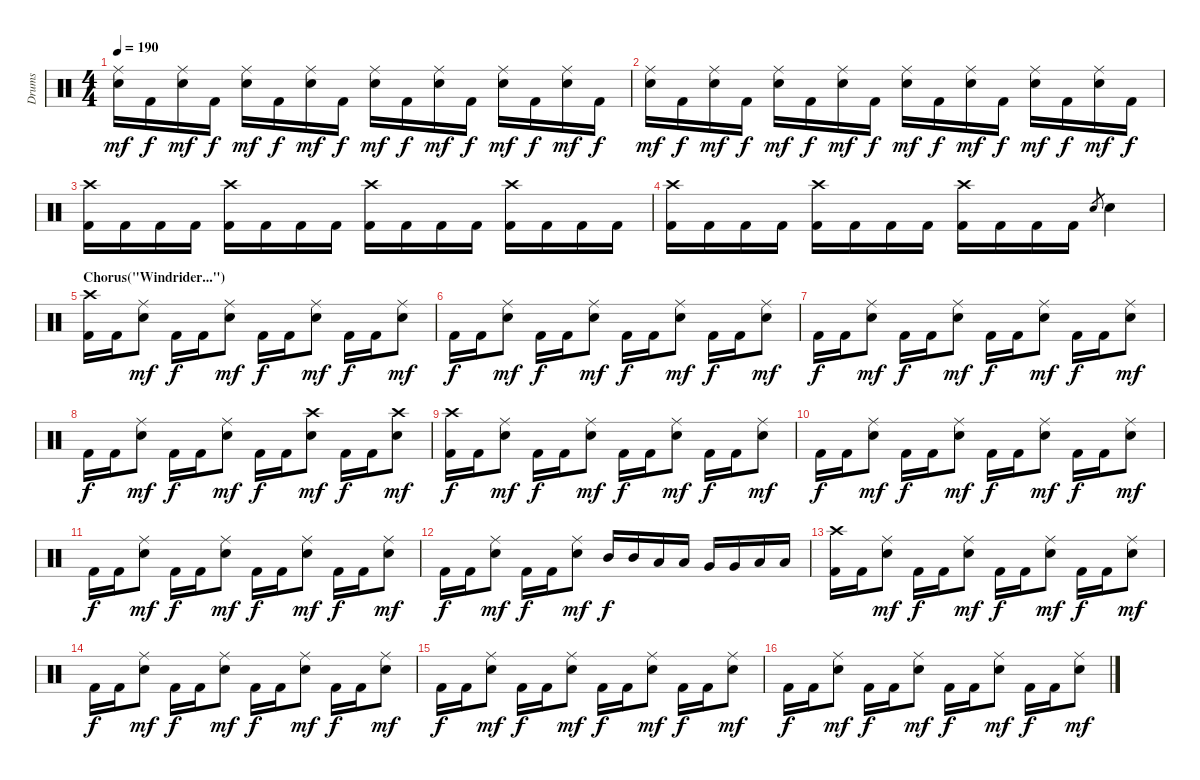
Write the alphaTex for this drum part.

\track ("Drums" "Drums") {instrument percussion}
\staff {score}
\articulation defaults
\ts (4 4)
\tempo 190
\clef neutral
\ks c
("Ride (middle)" "Snare (hit) 2").16{dy mf} "Kick (hit) 2".16{dy f} ("Ride (middle)" "Snare (hit) 2").16{dy mf} "Kick (hit) 2".16{dy f} ("Ride (middle)" "Snare (hit) 2").16{dy mf} "Kick (hit) 2".16{dy f} ("Ride (middle)" "Snare (hit) 2").16{dy mf} "Kick (hit) 2".16{dy f} ("Ride (middle)" "Snare (hit) 2").16{dy mf} "Kick (hit) 2".16{dy f} ("Ride (middle)" "Snare (hit) 2").16{dy mf} "Kick (hit) 2".16{dy f} ("Ride (middle)" "Snare (hit) 2").16{dy mf} "Kick (hit) 2".16{dy f} ("Ride (middle)" "Snare (hit) 2").16{dy mf} "Kick (hit) 2".16{dy f} |
("Ride (middle)" "Snare (hit) 2").16{dy mf} "Kick (hit) 2".16{dy f} ("Ride (middle)" "Snare (hit) 2").16{dy mf} "Kick (hit) 2".16{dy f} ("Ride (middle)" "Snare (hit) 2").16{dy mf} "Kick (hit) 2".16{dy f} ("Ride (middle)" "Snare (hit) 2").16{dy mf} "Kick (hit) 2".16{dy f} ("Ride (middle)" "Snare (hit) 2").16{dy mf} "Kick (hit) 2".16{dy f} ("Ride (middle)" "Snare (hit) 2").16{dy mf} "Kick (hit) 2".16{dy f} ("Ride (middle)" "Snare (hit) 2").16{dy mf} "Kick (hit) 2".16{dy f} ("Ride (middle)" "Snare (hit) 2").16{dy mf} "Kick (hit) 2".16{dy f} |
("Crash high (hit)" "Kick (hit) 2").16 "Kick (hit) 2".16 "Kick (hit) 2".16 "Kick (hit) 2".16 ("Crash high (hit)" "Kick (hit) 2").16 "Kick (hit) 2".16 "Kick (hit) 2".16 "Kick (hit) 2".16 ("Crash high (hit)" "Kick (hit) 2").16 "Kick (hit) 2".16 "Kick (hit) 2".16 "Kick (hit) 2".16 ("Crash high (hit)" "Kick (hit) 2").16 "Kick (hit) 2".16 "Kick (hit) 2".16 "Kick (hit) 2".16 |
("Crash high (hit)" "Kick (hit) 2").16 "Kick (hit) 2".16 "Kick (hit) 2".16 "Kick (hit) 2".16 ("Crash high (hit)" "Kick (hit) 2").16 "Kick (hit) 2".16 "Kick (hit) 2".16 "Kick (hit) 2".16 ("Crash high (hit)" "Kick (hit) 2").16 "Kick (hit) 2".16 "Kick (hit) 2".16 "Kick (hit) 2".16 "Snare (hit) 2".8{gr} "Snare (hit) 2".4 |
\section ("" "Chorus(\"Windrider...\")")
("Crash high (hit)" "Kick (hit) 2").16 "Kick (hit) 2".16 ("Ride (middle)" "Snare (hit) 2").8{dy mf} "Kick (hit) 2".16{dy f} "Kick (hit) 2".16 ("Ride (middle)" "Snare (hit) 2").8{dy mf} "Kick (hit) 2".16{dy f} "Kick (hit) 2".16 ("Ride (middle)" "Snare (hit) 2").8{dy mf} "Kick (hit) 2".16{dy f} "Kick (hit) 2".16 ("Ride (middle)" "Snare (hit) 2").8{dy mf} |
"Kick (hit) 2".16{dy f} "Kick (hit) 2".16 ("Ride (middle)" "Snare (hit) 2").8{dy mf} "Kick (hit) 2".16{dy f} "Kick (hit) 2".16 ("Ride (middle)" "Snare (hit) 2").8{dy mf} "Kick (hit) 2".16{dy f} "Kick (hit) 2".16 ("Ride (middle)" "Snare (hit) 2").8{dy mf} "Kick (hit) 2".16{dy f} "Kick (hit) 2".16 ("Ride (middle)" "Snare (hit) 2").8{dy mf} |
"Kick (hit) 2".16{dy f} "Kick (hit) 2".16 ("Ride (middle)" "Snare (hit) 2").8{dy mf} "Kick (hit) 2".16{dy f} "Kick (hit) 2".16 ("Ride (middle)" "Snare (hit) 2").8{dy mf} "Kick (hit) 2".16{dy f} "Kick (hit) 2".16 ("Ride (middle)" "Snare (hit) 2").8{dy mf} "Kick (hit) 2".16{dy f} "Kick (hit) 2".16 ("Ride (middle)" "Snare (hit) 2").8{dy mf} |
"Kick (hit) 2".16{dy f} "Kick (hit) 2".16 ("Ride (middle)" "Snare (hit) 2").8{dy mf} "Kick (hit) 2".16{dy f} "Kick (hit) 2".16 ("Ride (middle)" "Snare (hit) 2").8{dy mf} "Kick (hit) 2".16{dy f} "Kick (hit) 2".16 ("Crash high (hit)" "Snare (hit) 2").8{dy mf} "Kick (hit) 2".16{dy f} "Kick (hit) 2".16 ("Crash high (hit)" "Snare (hit) 2").8{dy mf} |
("Crash high (hit)" "Kick (hit) 2").16{dy f} "Kick (hit) 2".16 ("Ride (middle)" "Snare (hit) 2").8{dy mf} "Kick (hit) 2".16{dy f} "Kick (hit) 2".16 ("Ride (middle)" "Snare (hit) 2").8{dy mf} "Kick (hit) 2".16{dy f} "Kick (hit) 2".16 ("Ride (middle)" "Snare (hit) 2").8{dy mf} "Kick (hit) 2".16{dy f} "Kick (hit) 2".16 ("Ride (middle)" "Snare (hit) 2").8{dy mf} |
"Kick (hit) 2".16{dy f} "Kick (hit) 2".16 ("Ride (middle)" "Snare (hit) 2").8{dy mf} "Kick (hit) 2".16{dy f} "Kick (hit) 2".16 ("Ride (middle)" "Snare (hit) 2").8{dy mf} "Kick (hit) 2".16{dy f} "Kick (hit) 2".16 ("Ride (middle)" "Snare (hit) 2").8{dy mf} "Kick (hit) 2".16{dy f} "Kick (hit) 2".16 ("Ride (middle)" "Snare (hit) 2").8{dy mf} |
"Kick (hit) 2".16{dy f} "Kick (hit) 2".16 ("Ride (middle)" "Snare (hit) 2").8{dy mf} "Kick (hit) 2".16{dy f} "Kick (hit) 2".16 ("Ride (middle)" "Snare (hit) 2").8{dy mf} "Kick (hit) 2".16{dy f} "Kick (hit) 2".16 ("Ride (middle)" "Snare (hit) 2").8{dy mf} "Kick (hit) 2".16{dy f} "Kick (hit) 2".16 ("Ride (middle)" "Snare (hit) 2").8{dy mf} |
"Kick (hit) 2".16{dy f} "Kick (hit) 2".16 ("Ride (middle)" "Snare (hit) 2").8{dy mf} "Kick (hit) 2".16{dy f} "Kick (hit) 2".16 ("Ride (middle)" "Snare (hit) 2").8{dy mf} "Mid Tom (hit)".16{dy f} "Mid Tom (hit)".16 "Low Tom (hit)".16 "Low Tom (hit)".16 "Very Low Tom (hit)".16 "Very Low Tom (hit)".16 "Low Floor Tom (hit)".16 "Low Floor Tom (hit)".16 |
("Crash high (hit)" "Kick (hit) 2").16 "Kick (hit) 2".16 ("Ride (middle)" "Snare (hit) 2").8{dy mf} "Kick (hit) 2".16{dy f} "Kick (hit) 2".16 ("Ride (middle)" "Snare (hit) 2").8{dy mf} "Kick (hit) 2".16{dy f} "Kick (hit) 2".16 ("Ride (middle)" "Snare (hit) 2").8{dy mf} "Kick (hit) 2".16{dy f} "Kick (hit) 2".16 ("Ride (middle)" "Snare (hit) 2").8{dy mf} |
"Kick (hit) 2".16{dy f} "Kick (hit) 2".16 ("Ride (middle)" "Snare (hit) 2").8{dy mf} "Kick (hit) 2".16{dy f} "Kick (hit) 2".16 ("Ride (middle)" "Snare (hit) 2").8{dy mf} "Kick (hit) 2".16{dy f} "Kick (hit) 2".16 ("Ride (middle)" "Snare (hit) 2").8{dy mf} "Kick (hit) 2".16{dy f} "Kick (hit) 2".16 ("Ride (middle)" "Snare (hit) 2").8{dy mf} |
"Kick (hit) 2".16{dy f} "Kick (hit) 2".16 ("Ride (middle)" "Snare (hit) 2").8{dy mf} "Kick (hit) 2".16{dy f} "Kick (hit) 2".16 ("Ride (middle)" "Snare (hit) 2").8{dy mf} "Kick (hit) 2".16{dy f} "Kick (hit) 2".16 ("Ride (middle)" "Snare (hit) 2").8{dy mf} "Kick (hit) 2".16{dy f} "Kick (hit) 2".16 ("Ride (middle)" "Snare (hit) 2").8{dy mf} |
"Kick (hit) 2".16{dy f} "Kick (hit) 2".16 ("Ride (middle)" "Snare (hit) 2").8{dy mf} "Kick (hit) 2".16{dy f} "Kick (hit) 2".16 ("Ride (middle)" "Snare (hit) 2").8{dy mf} "Kick (hit) 2".16{dy f} "Kick (hit) 2".16 ("Ride (middle)" "Snare (hit) 2").8{dy mf} "Kick (hit) 2".16{dy f} "Kick (hit) 2".16 ("Ride (middle)" "Snare (hit) 2").8{dy mf}
